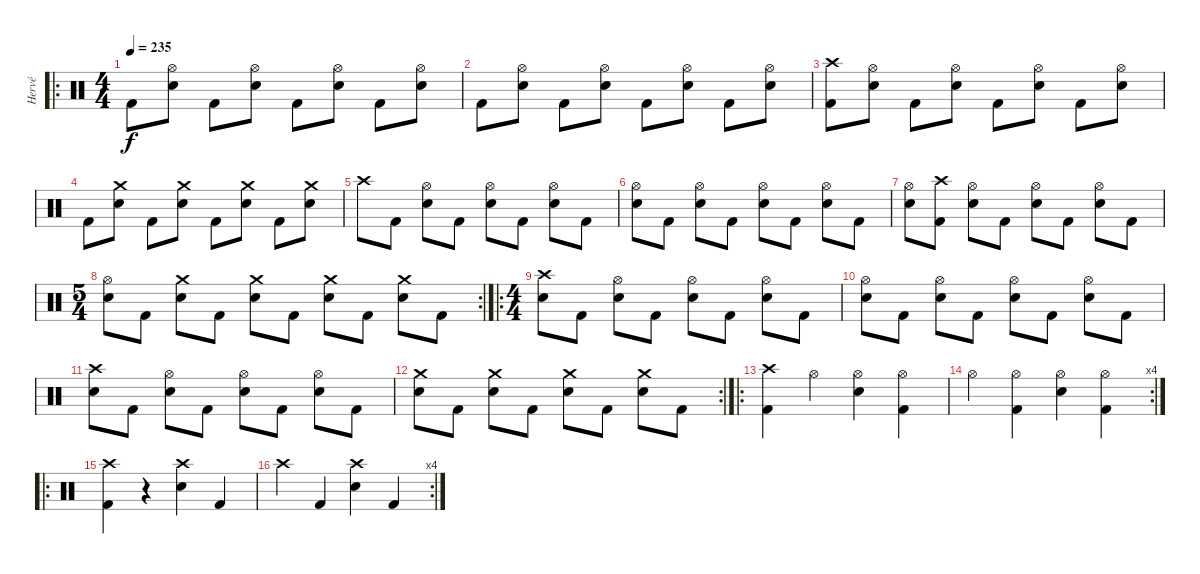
\track ("Hervé" "Hervé") {instrument percussion}
\staff {score}
\articulation defaults
\ro
\ts (4 4)
\tempo 235
\clef neutral
\ks c "Kick (hit) 2".8{dy f}
("Hi-Hat (open)" "Electric Snare (hit)").8 "Kick (hit) 2".8 ("Hi-Hat (open)" "Electric Snare (hit)").8 "Kick (hit) 2".8 ("Hi-Hat (open)" "Electric Snare (hit)").8 "Kick (hit) 2".8 ("Hi-Hat (open)" "Electric Snare (hit)").8 |
"Kick (hit) 2".8 ("Hi-Hat (open)" "Electric Snare (hit)").8 "Kick (hit) 2".8 ("Hi-Hat (open)" "Electric Snare (hit)").8 "Kick (hit) 2".8 ("Hi-Hat (open)" "Electric Snare (hit)").8 "Kick (hit) 2".8 ("Hi-Hat (open)" "Electric Snare (hit)").8 |
("Crash high (hit)" "Kick (hit) 2").8 ("Hi-Hat (open)" "Electric Snare (hit)").8 "Kick (hit) 2".8 ("Hi-Hat (open)" "Electric Snare (hit)").8 "Kick (hit) 2".8 ("Hi-Hat (open)" "Electric Snare (hit)").8 "Kick (hit) 2".8 ("Hi-Hat (open)" "Electric Snare (hit)").8 |
"Kick (hit) 2".8 ("Crash medium (hit)" "Electric Snare (hit)").8 "Kick (hit) 2".8 ("Crash medium (hit)" "Electric Snare (hit)").8 "Kick (hit) 2".8 ("Crash medium (hit)" "Electric Snare (hit)").8 "Kick (hit) 2".8 ("Crash medium (hit)" "Electric Snare (hit)").8 |
"Crash high (hit)".8 "Kick (hit) 2".8 ("Hi-Hat (open)" "Electric Snare (hit)").8 "Kick (hit) 2".8 ("Hi-Hat (open)" "Electric Snare (hit)").8 "Kick (hit) 2".8 ("Hi-Hat (open)" "Electric Snare (hit)").8 "Kick (hit) 2".8 |
("Hi-Hat (open)" "Electric Snare (hit)").8 "Kick (hit) 2".8 ("Hi-Hat (open)" "Electric Snare (hit)").8 "Kick (hit) 2".8 ("Hi-Hat (open)" "Electric Snare (hit)").8 "Kick (hit) 2".8 ("Hi-Hat (open)" "Electric Snare (hit)").8 "Kick (hit) 2".8 |
("Hi-Hat (open)" "Electric Snare (hit)").8 ("Crash high (hit)" "Kick (hit) 2").8 ("Hi-Hat (open)" "Electric Snare (hit)").8 "Kick (hit) 2".8 ("Hi-Hat (open)" "Electric Snare (hit)").8 "Kick (hit) 2".8 ("Hi-Hat (open)" "Electric Snare (hit)").8 "Kick (hit) 2".8 |
\rc 2
\ts (5 4)
("Hi-Hat (open)" "Electric Snare (hit)").8 "Kick (hit) 2".8 ("Crash medium (hit)" "Electric Snare (hit)").8 "Kick (hit) 2".8 ("Crash medium (hit)" "Electric Snare (hit)").8 "Kick (hit) 2".8 ("Crash medium (hit)" "Electric Snare (hit)").8 "Kick (hit) 2".8 ("Crash medium (hit)" "Electric Snare (hit)").8 "Kick (hit) 2".8 |
\ro
\ts (4 4)
("Crash high (hit)" "Electric Snare (hit)").8 "Kick (hit) 2".8 ("Hi-Hat (open)" "Electric Snare (hit)").8 "Kick (hit) 2".8 ("Hi-Hat (open)" "Electric Snare (hit)").8 "Kick (hit) 2".8 ("Hi-Hat (open)" "Electric Snare (hit)").8 "Kick (hit) 2".8 |
("Hi-Hat (open)" "Electric Snare (hit)").8 "Kick (hit) 2".8 ("Hi-Hat (open)" "Electric Snare (hit)").8 "Kick (hit) 2".8 ("Hi-Hat (open)" "Electric Snare (hit)").8 "Kick (hit) 2".8 ("Hi-Hat (open)" "Electric Snare (hit)").8 "Kick (hit) 2".8 |
("Crash high (hit)" "Electric Snare (hit)").8 "Kick (hit) 2".8 ("Hi-Hat (open)" "Electric Snare (hit)").8 "Kick (hit) 2".8 ("Hi-Hat (open)" "Electric Snare (hit)").8 "Kick (hit) 2".8 ("Hi-Hat (open)" "Electric Snare (hit)").8 "Kick (hit) 2".8 |
\rc 2
("Crash medium (hit)" "Electric Snare (hit)").8 "Kick (hit) 2".8 ("Crash medium (hit)" "Electric Snare (hit)").8 "Kick (hit) 2".8 ("Crash medium (hit)" "Electric Snare (hit)").8 "Kick (hit) 2".8 ("Crash medium (hit)" "Electric Snare (hit)").8 "Kick (hit) 2".8 |
\ro
("Crash high (hit)" "Kick (hit) 2").4 "Hi-Hat (open)".4 ("Hi-Hat (open)" "Electric Snare (hit)").4 ("Hi-Hat (open)" "Kick (hit) 2").4 |
\rc 4 "Hi-Hat (open)".4
("Hi-Hat (open)" "Kick (hit) 2").4 ("Hi-Hat (open)" "Electric Snare (hit)").4 ("Hi-Hat (open)" "Kick (hit) 2").4 |
\ro
("Crash high (hit)" "Kick (hit) 2").4 r.4 ("Crash high (hit)" "Electric Snare (hit)").4 "Kick (hit) 2".4 |
\rc 4 "Crash high (hit)".4 "Kick (hit) 2".4
("Crash high (hit)" "Electric Snare (hit)").4 "Kick (hit) 2".4
